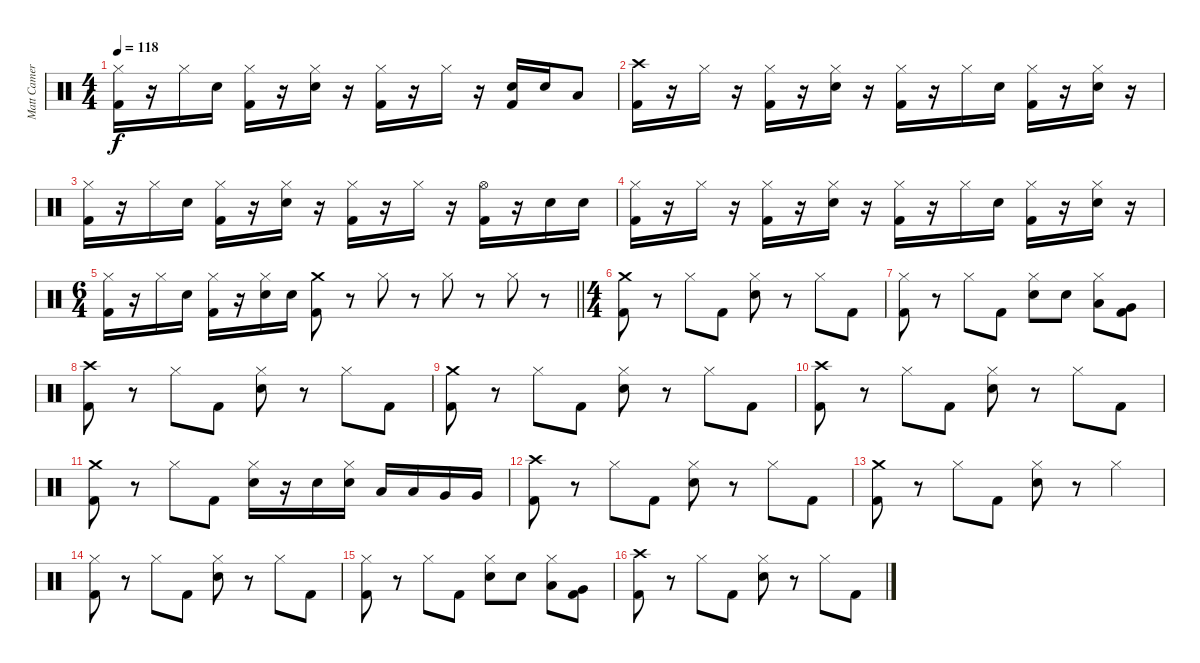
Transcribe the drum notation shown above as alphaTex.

\track ("Matt Cameron" "Matt Camer") {instrument percussion}
\staff {score}
\articulation defaults
\ts (4 4)
\tempo 118
\clef neutral
\ks c
("Hi-Hat (closed)" "Kick (hit) 2").16{dy f} r.16 "Hi-Hat (closed)".16 "Snare (hit) 2".16 ("Hi-Hat (closed)" "Kick (hit) 2").16 r.16 ("Hi-Hat (closed)" "Snare (hit) 2").16 r.16 ("Hi-Hat (closed)" "Kick (hit) 2").16 r.16 "Hi-Hat (closed)".16 r.16 ("Snare (hit) 2" "Kick (hit) 2").16 "Snare (hit) 2".16 "Low Tom (hit)".8 |
("Crash high (hit)" "Kick (hit) 2").16 r.16 "Hi-Hat (closed)".16 r.16 ("Hi-Hat (closed)" "Kick (hit) 2").16 r.16 ("Hi-Hat (closed)" "Snare (hit) 2").16 r.16 ("Hi-Hat (closed)" "Kick (hit) 2").16 r.16 "Hi-Hat (closed)".16 "Snare (hit) 2".16 ("Hi-Hat (closed)" "Kick (hit) 2").16 r.16 ("Hi-Hat (closed)" "Snare (hit) 2").16 r.16 |
("Hi-Hat (closed)" "Kick (hit) 2").16 r.16 "Hi-Hat (closed)".16 "Snare (hit) 2".16 ("Hi-Hat (closed)" "Kick (hit) 2").16 r.16 ("Hi-Hat (closed)" "Snare (hit) 2").16 r.16 ("Hi-Hat (closed)" "Kick (hit) 2").16 r.16 "Hi-Hat (closed)".16 r.16 ("Hi-Hat (open)" "Kick (hit) 2").16 r.16 "Snare (hit) 2".16 "Snare (hit) 2".16 |
("Hi-Hat (closed)" "Kick (hit) 2").16 r.16 "Hi-Hat (closed)".16 r.16 ("Hi-Hat (closed)" "Kick (hit) 2").16 r.16 ("Hi-Hat (closed)" "Snare (hit) 2").16 r.16 ("Hi-Hat (closed)" "Kick (hit) 2").16 r.16 "Hi-Hat (closed)".16 "Snare (hit) 2".16 ("Hi-Hat (closed)" "Kick (hit) 2").16 r.16 ("Hi-Hat (closed)" "Snare (hit) 2").16 r.16 |
\ts (6 4)
\barLineRight lightlight
("Hi-Hat (closed)" "Kick (hit) 2").16 r.16 "Hi-Hat (closed)".16 "Snare (hit) 2".16 ("Hi-Hat (closed)" "Kick (hit) 2").16 r.16 ("Hi-Hat (closed)" "Snare (hit) 2").16 "Snare (hit) 2".16 ("Crash medium (hit)" "Kick (hit) 2").8 r.8 "Hi-Hat (closed)".8 r.8 "Hi-Hat (closed)".8 r.8 "Hi-Hat (closed)".8 r.8 |
\ts (4 4)
("Crash medium (hit)" "Kick (hit) 2").8 r.8 "Hi-Hat (closed)".8 "Kick (hit) 2".8 ("Hi-Hat (closed)" "Snare (hit) 2").8 r.8 "Hi-Hat (closed)".8 "Kick (hit) 2".8 |
("Hi-Hat (closed)" "Kick (hit) 2").8 r.8 "Hi-Hat (closed)".8 "Kick (hit) 2".8 ("Hi-Hat (closed)" "Snare (hit) 2").8 "Snare (hit) 2".8 ("Hi-Hat (closed)" "Low Tom (hit)").8 ("Very Low Tom (hit)" "Kick (hit) 2").8 |
("Crash high (hit)" "Kick (hit) 2").8 r.8 "Hi-Hat (closed)".8 "Kick (hit) 2".8 ("Hi-Hat (closed)" "Snare (hit) 2").8 r.8 "Hi-Hat (closed)".8 "Kick (hit) 2".8 |
("Crash medium (hit)" "Kick (hit) 2").8 r.8 "Hi-Hat (closed)".8 "Kick (hit) 2".8 ("Hi-Hat (closed)" "Snare (hit) 2").8 r.8 "Hi-Hat (closed)".8 "Kick (hit) 2".8 |
("Crash high (hit)" "Kick (hit) 2").8 r.8 "Hi-Hat (closed)".8 "Kick (hit) 2".8 ("Hi-Hat (closed)" "Snare (hit) 2").8 r.8 "Hi-Hat (closed)".8 "Kick (hit) 2".8 |
("Crash medium (hit)" "Kick (hit) 2").8 r.8 "Hi-Hat (closed)".8 "Kick (hit) 2".8 ("Hi-Hat (closed)" "Snare (hit) 2").16 r.16 "Snare (hit) 2".16 ("Hi-Hat (closed)" "Snare (hit) 2").16 "Low Tom (hit)".16 "Low Tom (hit)".16 "Very Low Tom (hit)".16 "Very Low Tom (hit)".16 |
("Crash high (hit)" "Kick (hit) 2").8 r.8 "Hi-Hat (closed)".8 "Kick (hit) 2".8 ("Hi-Hat (closed)" "Snare (hit) 2").8 r.8 "Hi-Hat (closed)".8 "Kick (hit) 2".8 |
("Crash medium (hit)" "Kick (hit) 2").8 r.8 "Hi-Hat (closed)".8 "Kick (hit) 2".8 ("Hi-Hat (closed)" "Snare (hit) 2").8 r.8 "Hi-Hat (closed)".4 |
("Hi-Hat (closed)" "Kick (hit) 2").8 r.8 "Hi-Hat (closed)".8 "Kick (hit) 2".8 ("Hi-Hat (closed)" "Snare (hit) 2").8 r.8 "Hi-Hat (closed)".8 "Kick (hit) 2".8 |
("Hi-Hat (closed)" "Kick (hit) 2").8 r.8 "Hi-Hat (closed)".8 "Kick (hit) 2".8 ("Hi-Hat (closed)" "Snare (hit) 2").8 "Snare (hit) 2".8 ("Hi-Hat (closed)" "Low Tom (hit)").8 ("Very Low Tom (hit)" "Kick (hit) 2").8 |
("Crash high (hit)" "Kick (hit) 2").8 r.8 "Hi-Hat (closed)".8 "Kick (hit) 2".8 ("Hi-Hat (closed)" "Snare (hit) 2").8 r.8 "Hi-Hat (closed)".8 "Kick (hit) 2".8
